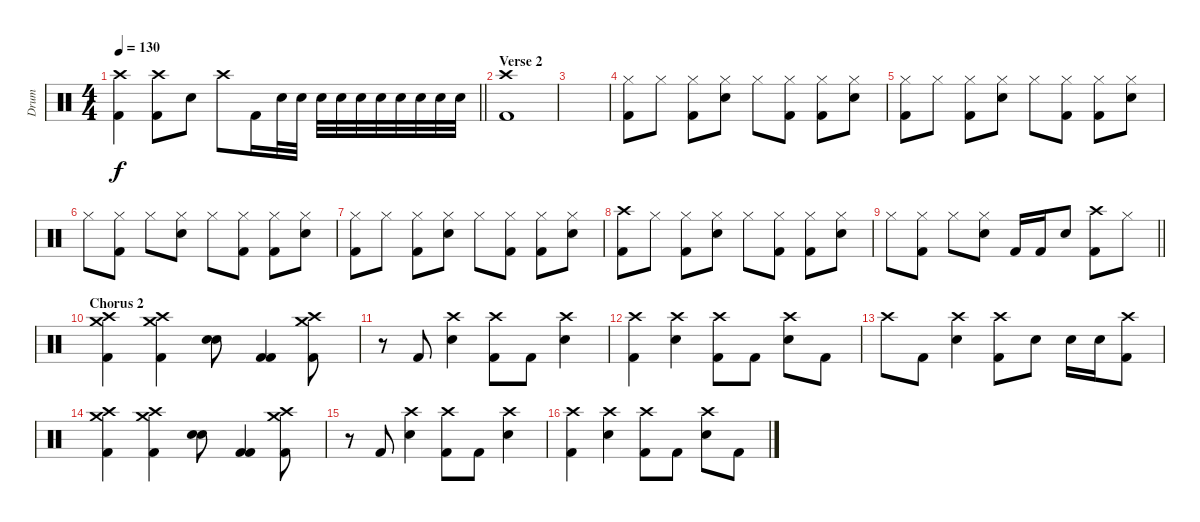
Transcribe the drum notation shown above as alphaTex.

\track ("Drum" "Drum") {instrument percussion}
\staff {score}
\articulation defaults
\ts (4 4)
\tempo 130
\clef neutral
\barLineRight lightlight
\ks c
("Crash high (hit)" "Kick (hit) 2").4{dy f} ("Crash high (hit)" "Kick (hit) 2").8 "Electric Snare (hit)".8 "Crash high (hit)".8 "Kick (hit) 2".16 "Electric Snare (hit)".32 "Electric Snare (hit)".32 "Electric Snare (hit)".32 "Electric Snare (hit)".32 "Electric Snare (hit)".32 "Electric Snare (hit)".32 "Electric Snare (hit)".32 "Electric Snare (hit)".32 "Electric Snare (hit)".32 "Electric Snare (hit)".32 |
\section ("" "Verse 2")
("Crash high (hit)" "Kick (hit) 2").1 |
|
("Hi-Hat (closed)" "Kick (hit) 2").8 "Hi-Hat (closed)".8 ("Hi-Hat (closed)" "Kick (hit) 2").8 ("Hi-Hat (closed)" "Electric Snare (hit)").8 "Hi-Hat (closed)".8 ("Hi-Hat (closed)" "Kick (hit) 2").8 ("Hi-Hat (closed)" "Kick (hit) 2").8 ("Hi-Hat (closed)" "Electric Snare (hit)").8 |
("Hi-Hat (closed)" "Kick (hit) 2").8 "Hi-Hat (closed)".8 ("Hi-Hat (closed)" "Kick (hit) 2").8 ("Hi-Hat (closed)" "Electric Snare (hit)").8 "Hi-Hat (closed)".8 ("Hi-Hat (closed)" "Kick (hit) 2").8 ("Hi-Hat (closed)" "Kick (hit) 2").8 ("Hi-Hat (closed)" "Electric Snare (hit)").8 |
"Hi-Hat (closed)".8 ("Hi-Hat (closed)" "Kick (hit) 2").8 "Hi-Hat (closed)".8 ("Hi-Hat (closed)" "Electric Snare (hit)").8 "Hi-Hat (closed)".8 ("Hi-Hat (closed)" "Kick (hit) 2").8 ("Hi-Hat (closed)" "Kick (hit) 2").8 ("Hi-Hat (closed)" "Electric Snare (hit)").8 |
("Hi-Hat (closed)" "Kick (hit) 2").8 "Hi-Hat (closed)".8 ("Hi-Hat (closed)" "Kick (hit) 2").8 ("Hi-Hat (closed)" "Electric Snare (hit)").8 "Hi-Hat (closed)".8 ("Hi-Hat (closed)" "Kick (hit) 2").8 ("Hi-Hat (closed)" "Kick (hit) 2").8 ("Hi-Hat (closed)" "Electric Snare (hit)").8 |
("Crash high (hit)" "Kick (hit) 2").8 "Hi-Hat (closed)".8 ("Hi-Hat (closed)" "Kick (hit) 2").8 ("Hi-Hat (closed)" "Electric Snare (hit)").8 "Hi-Hat (closed)".8 ("Hi-Hat (closed)" "Kick (hit) 2").8 ("Hi-Hat (closed)" "Kick (hit) 2").8 ("Hi-Hat (closed)" "Electric Snare (hit)").8 |
\barLineRight lightlight "Hi-Hat (closed)".8
("Hi-Hat (closed)" "Kick (hit) 2").8 "Hi-Hat (closed)".8 ("Hi-Hat (closed)" "Electric Snare (hit)").8 "Kick (hit) 2".16 "Kick (hit) 2".16 "Electric Snare (hit)".8 ("Crash high (hit)" "Kick (hit) 2").8 "Hi-Hat (closed)".8 |
\section ("" "Chorus 2")
("Crash high (hit)" "Crash medium (hit)" "Kick (hit) 2").4 ("Crash high (hit)" "Crash medium (hit)" "Kick (hit) 2").4 ("Electric Snare (hit)" "Electric Snare (hit)").8 ("Kick (hit) 2" "Kick (hit) 2").4 ("Crash high (hit)" "Crash medium (hit)" "Kick (hit) 2").8 |
r.8 "Kick (hit) 2".8 ("Crash high (hit)" "Electric Snare (hit)").4 ("Crash high (hit)" "Kick (hit) 2").8 "Kick (hit) 2".8 ("Crash high (hit)" "Electric Snare (hit)").4 |
("Crash high (hit)" "Kick (hit) 2").4 ("Crash high (hit)" "Electric Snare (hit)").4 ("Crash high (hit)" "Kick (hit) 2").8 "Kick (hit) 2".8 ("Crash high (hit)" "Electric Snare (hit)").8 "Kick (hit) 2".8 |
"Crash high (hit)".8 "Kick (hit) 2".8 ("Crash high (hit)" "Electric Snare (hit)").4 ("Crash high (hit)" "Kick (hit) 2").8 "Electric Snare (hit)".8 "Electric Snare (hit)".16 "Electric Snare (hit)".16 ("Crash high (hit)" "Kick (hit) 2").8 |
("Crash high (hit)" "Crash medium (hit)" "Kick (hit) 2").4 ("Crash high (hit)" "Crash medium (hit)" "Kick (hit) 2").4 ("Electric Snare (hit)" "Electric Snare (hit)").8 ("Kick (hit) 2" "Kick (hit) 2").4 ("Crash high (hit)" "Crash medium (hit)" "Kick (hit) 2").8 |
r.8 "Kick (hit) 2".8 ("Crash high (hit)" "Electric Snare (hit)").4 ("Crash high (hit)" "Kick (hit) 2").8 "Kick (hit) 2".8 ("Crash high (hit)" "Electric Snare (hit)").4 |
("Crash high (hit)" "Kick (hit) 2").4 ("Crash high (hit)" "Electric Snare (hit)").4 ("Crash high (hit)" "Kick (hit) 2").8 "Kick (hit) 2".8 ("Crash high (hit)" "Electric Snare (hit)").8 "Kick (hit) 2".8
